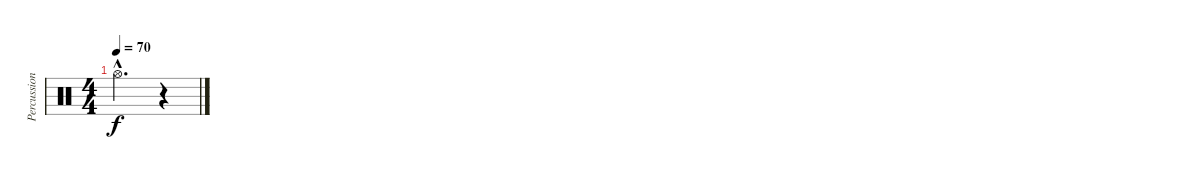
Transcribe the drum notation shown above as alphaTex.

\track ("Percussions" "Percussion") {instrument percussion}
\staff {score}
\articulation defaults
\ts (4 4)
\tempo 70
\clef neutral
\ks c "Hi-Hat (open)"{hac}.2{d dy f}
r.4
